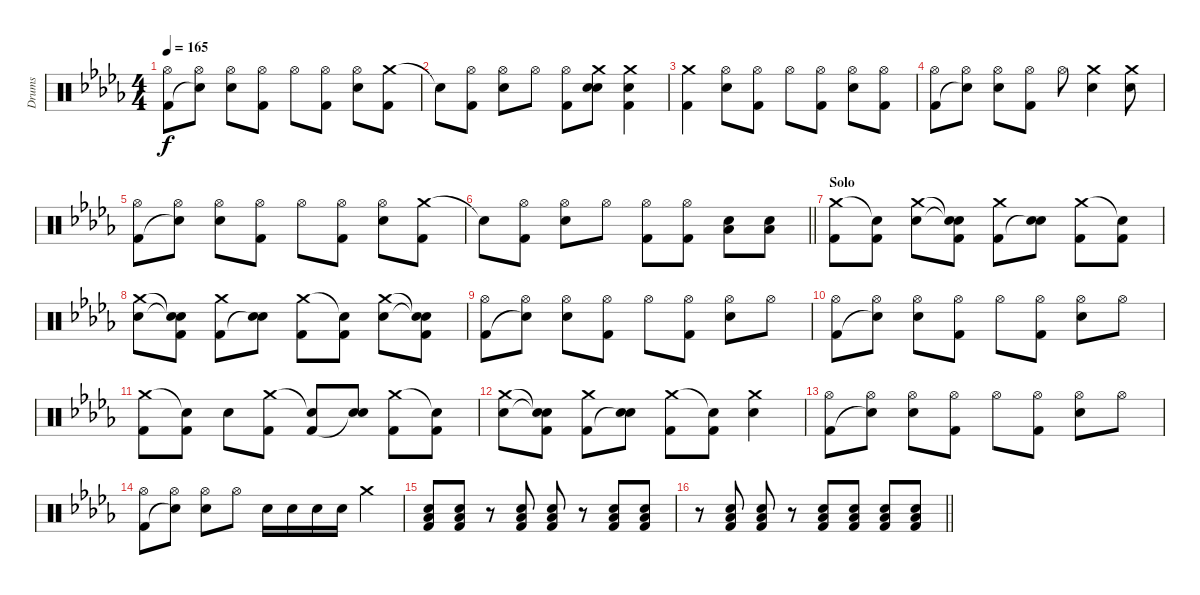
\track ("Drums" "Drums") {instrument percussion}
\staff {score}
\articulation defaults
\ts (4 4)
\tempo 165
\clef neutral
\ks bbminor
("Hi-Hat (open)" "Kick (hit) 2").8{dy f} ("Hi-Hat (open)" "Snare (hit)"{t}).8 ("Hi-Hat (open)" "Electric Snare (hit)").8 ("Hi-Hat (open)" "Kick (hit) 2").8 "Hi-Hat (open)".8 ("Hi-Hat (open)" "Kick (hit) 2").8 ("Hi-Hat (open)" "Electric Snare (hit)").8 ("Crash medium (hit)" "Kick (hit) 2").8 |
"Snare (hit)"{t}.8 ("Hi-Hat (open)" "Kick (hit) 2").8 ("Hi-Hat (open)" "Electric Snare (hit)").8 "Hi-Hat (open)".8 ("Hi-Hat (open)" "Kick (hit) 2").8 ("Crash medium (hit)" "Electric Snare (hit)" "Snare (hit)").8 ("Crash medium (hit)" "Electric Snare (hit)" "Kick (hit) 2").4 |
("Crash medium (hit)" "Kick (hit) 2").4 ("Hi-Hat (open)" "Electric Snare (hit)").8 ("Hi-Hat (open)" "Kick (hit) 2").8 "Hi-Hat (open)".8 ("Hi-Hat (open)" "Kick (hit) 2").8 ("Hi-Hat (open)" "Electric Snare (hit)").8 ("Hi-Hat (open)" "Kick (hit) 2").8 |
("Hi-Hat (open)" "Kick (hit) 2").8 ("Hi-Hat (open)" "Snare (hit)"{t}).8 ("Hi-Hat (open)" "Electric Snare (hit)").8 ("Hi-Hat (open)" "Kick (hit) 2").8 "Hi-Hat (open)".8 ("Crash medium (hit)" "Electric Snare (hit)").4 ("Crash medium (hit)" "Electric Snare (hit)").8 |
("Hi-Hat (open)" "Kick (hit) 2").8 ("Hi-Hat (open)" "Snare (hit)"{t}).8 ("Hi-Hat (open)" "Electric Snare (hit)").8 ("Hi-Hat (open)" "Kick (hit) 2").8 "Hi-Hat (open)".8 ("Hi-Hat (open)" "Kick (hit) 2").8 ("Hi-Hat (open)" "Electric Snare (hit)").8 ("Crash medium (hit)" "Kick (hit) 2").8 |
\barLineRight lightlight "Snare (hit)"{t}.8
("Hi-Hat (open)" "Kick (hit) 2").8 ("Hi-Hat (open)" "Electric Snare (hit)").8 "Hi-Hat (open)".8 ("Hi-Hat (open)" "Kick (hit) 2").8 ("Hi-Hat (open)" "Kick (hit) 2").8 ("Electric Snare (hit)" "Low Floor Tom (hit)").8 ("Electric Snare (hit)" "Low Floor Tom (hit)").8 |
\section ("" "Solo")
("Crash medium (hit)" "Kick (hit) 2").8 ("Snare (hit)"{t} "Kick (hit) 2").8 ("Crash medium (hit)" "Electric Snare (hit)").8 ("Snare (hit)"{t} "Snare (hit)"{t} "Kick (hit) 2").8 ("Crash medium (hit)" "Kick (hit) 2").8 ("Electric Snare (hit)" "Snare (hit)"{t}).8 ("Crash medium (hit)" "Kick (hit) 2").8 ("Snare (hit)"{t} "Kick (hit) 2").8 |
("Crash medium (hit)" "Electric Snare (hit)").8 ("Snare (hit)"{t} "Snare (hit)"{t} "Kick (hit) 2").8 ("Crash medium (hit)" "Kick (hit) 2").8 ("Electric Snare (hit)" "Snare (hit)"{t}).8 ("Crash medium (hit)" "Kick (hit) 2").8 ("Snare (hit)"{t} "Kick (hit) 2").8 ("Crash medium (hit)" "Electric Snare (hit)").8 ("Snare (hit)"{t} "Snare (hit)"{t} "Kick (hit) 2").8 |
("Hi-Hat (open)" "Kick (hit) 2").8 ("Hi-Hat (open)" "Snare (hit)"{t}).8 ("Hi-Hat (open)" "Electric Snare (hit)").8 ("Hi-Hat (open)" "Kick (hit) 2").8 "Hi-Hat (open)".8 ("Hi-Hat (open)" "Kick (hit) 2").8 ("Hi-Hat (open)" "Electric Snare (hit)").8 "Hi-Hat (open)".8 |
("Hi-Hat (open)" "Kick (hit) 2").8 ("Hi-Hat (open)" "Snare (hit)"{t}).8 ("Hi-Hat (open)" "Electric Snare (hit)").8 ("Hi-Hat (open)" "Kick (hit) 2").8 "Hi-Hat (open)".8 ("Hi-Hat (open)" "Kick (hit) 2").8 ("Hi-Hat (open)" "Electric Snare (hit)").8 "Hi-Hat (open)".8 |
("Crash medium (hit)" "Kick (hit) 2").8 ("Snare (hit)"{t} "Kick (hit) 2").8 "Electric Snare (hit)".8 ("Crash medium (hit)" "Kick (hit) 2").8 ("Snare (hit)"{t} "Kick (hit) 2").8 ("Electric Snare (hit)" "Snare (hit)"{t}).8 ("Crash medium (hit)" "Kick (hit) 2").8 ("Snare (hit)"{t} "Kick (hit) 2").8 |
("Crash medium (hit)" "Electric Snare (hit)").8 ("Snare (hit)"{t} "Snare (hit)"{t} "Kick (hit) 2").8 ("Crash medium (hit)" "Kick (hit) 2").8 ("Electric Snare (hit)" "Snare (hit)"{t}).8 ("Crash medium (hit)" "Kick (hit) 2").8 ("Snare (hit)"{t} "Kick (hit) 2").8 ("Crash medium (hit)" "Electric Snare (hit)").4 |
("Hi-Hat (open)" "Kick (hit) 2").8 ("Hi-Hat (open)" "Snare (hit)"{t}).8 ("Hi-Hat (open)" "Electric Snare (hit)").8 ("Hi-Hat (open)" "Kick (hit) 2").8 "Hi-Hat (open)".8 ("Hi-Hat (open)" "Kick (hit) 2").8 ("Hi-Hat (open)" "Electric Snare (hit)").8 "Hi-Hat (open)".8 |
("Hi-Hat (open)" "Kick (hit) 2").8 ("Hi-Hat (open)" "Snare (hit)"{t}).8 ("Hi-Hat (open)" "Electric Snare (hit)").8 "Hi-Hat (open)".8 "Electric Snare (hit)".16 "Electric Snare (hit)".16 "Electric Snare (hit)".16 "Electric Snare (hit)".16 "Crash medium (hit)".4 |
("Electric Snare (hit)" "Low Floor Tom (hit)" "Kick (hit) 2").8 ("Electric Snare (hit)" "Low Floor Tom (hit)" "Kick (hit) 2").8 r.8 ("Electric Snare (hit)" "Low Floor Tom (hit)" "Kick (hit) 2").8 ("Electric Snare (hit)" "Low Floor Tom (hit)" "Kick (hit) 2").8 r.8 ("Electric Snare (hit)" "Low Floor Tom (hit)" "Kick (hit) 2").8 ("Electric Snare (hit)" "Low Floor Tom (hit)" "Kick (hit) 2").8 |
\barLineRight lightlight
r.8 ("Electric Snare (hit)" "Low Floor Tom (hit)" "Kick (hit) 2").8 ("Electric Snare (hit)" "Low Floor Tom (hit)" "Kick (hit) 2").8 r.8 ("Electric Snare (hit)" "Low Floor Tom (hit)" "Kick (hit) 2").8 ("Electric Snare (hit)" "Low Floor Tom (hit)" "Kick (hit) 2").8 ("Electric Snare (hit)" "Low Floor Tom (hit)" "Kick (hit) 2").8 ("Electric Snare (hit)" "Low Floor Tom (hit)" "Kick (hit) 2").8
